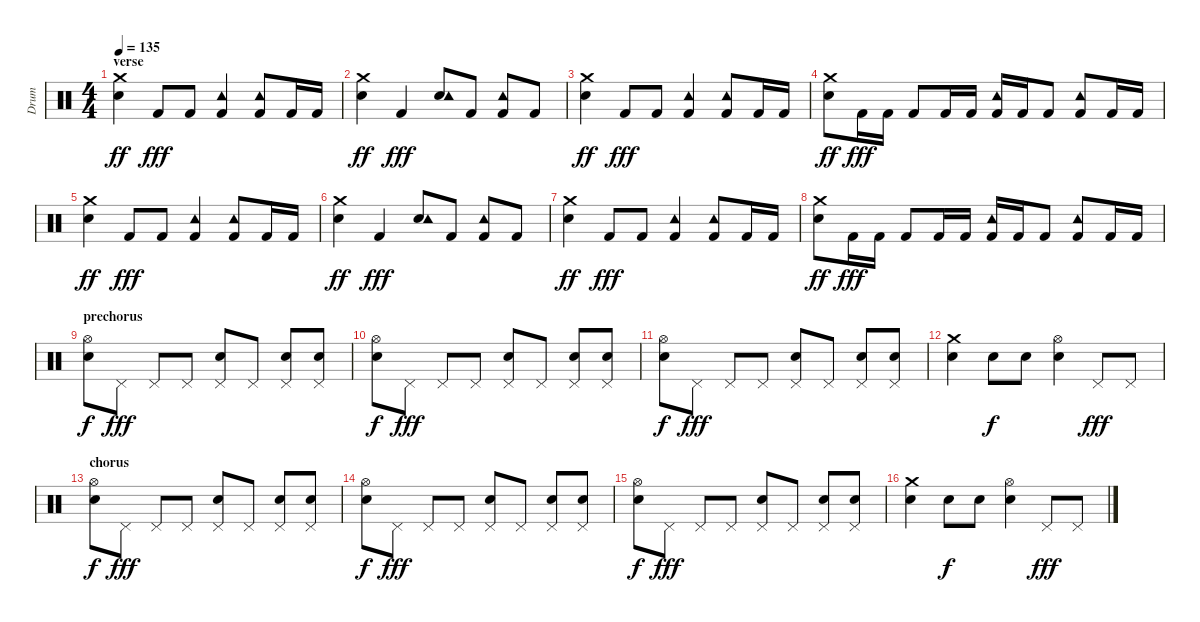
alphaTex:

\track ("Drum" "Drum") {instrument percussion}
\staff {score}
\articulation defaults
\ts (4 4)
\section ("" "verse")
\tempo 135
\clef neutral
\ks c
("Electric Snare (hit)" "Crash medium (hit)").4{dy ff} "Kick (hit) 2".8{dy fff} "Kick (hit) 2".8 ("Kick (hit) 2" "Tambourine (hit)").4 ("Kick (hit) 2" "Tambourine (hit)").8 "Kick (hit) 2".16 "Kick (hit) 2".16 |
("Electric Snare (hit)" "Crash medium (hit)").4{dy ff} "Kick (hit) 2".4{dy fff} ("Electric Snare (hit)" "Tambourine (hit)").8 "Kick (hit) 2".8 ("Kick (hit) 2" "Tambourine (hit)").8 "Kick (hit) 2".8 |
("Electric Snare (hit)" "Crash medium (hit)").4{dy ff} "Kick (hit) 2".8{dy fff} "Kick (hit) 2".8 ("Kick (hit) 2" "Tambourine (hit)").4 ("Kick (hit) 2" "Tambourine (hit)").8 "Kick (hit) 2".16 "Kick (hit) 2".16 |
("Electric Snare (hit)" "Crash medium (hit)").8{dy ff} "Kick (hit) 2".16{dy fff} "Kick (hit) 2".16 "Kick (hit) 2".8 "Kick (hit) 2".16 "Kick (hit) 2".16 ("Kick (hit) 2" "Tambourine (hit)").16 "Kick (hit) 2".16 "Kick (hit) 2".8 ("Kick (hit) 2" "Tambourine (hit)").8 "Kick (hit) 2".16 "Kick (hit) 2".16 |
("Electric Snare (hit)" "Crash medium (hit)").4{dy ff} "Kick (hit) 2".8{dy fff} "Kick (hit) 2".8 ("Kick (hit) 2" "Tambourine (hit)").4 ("Kick (hit) 2" "Tambourine (hit)").8 "Kick (hit) 2".16 "Kick (hit) 2".16 |
("Electric Snare (hit)" "Crash medium (hit)").4{dy ff} "Kick (hit) 2".4{dy fff} ("Electric Snare (hit)" "Tambourine (hit)").8 "Kick (hit) 2".8 ("Kick (hit) 2" "Tambourine (hit)").8 "Kick (hit) 2".8 |
("Electric Snare (hit)" "Crash medium (hit)").4{dy ff} "Kick (hit) 2".8{dy fff} "Kick (hit) 2".8 ("Kick (hit) 2" "Tambourine (hit)").4 ("Kick (hit) 2" "Tambourine (hit)").8 "Kick (hit) 2".16 "Kick (hit) 2".16 |
("Electric Snare (hit)" "Crash medium (hit)").8{dy ff} "Kick (hit) 2".16{dy fff} "Kick (hit) 2".16 "Kick (hit) 2".8 "Kick (hit) 2".16 "Kick (hit) 2".16 ("Kick (hit) 2" "Tambourine (hit)").16 "Kick (hit) 2".16 "Kick (hit) 2".8 ("Kick (hit) 2" "Tambourine (hit)").8 "Kick (hit) 2".16 "Kick (hit) 2".16 |
\section ("" "prechorus")
("Hi-Hat (open)" "Electric Snare (hit)").8{dy f} "Pedal Hi-Hat (hit)".8{dy fff} "Pedal Hi-Hat (hit)".8 "Pedal Hi-Hat (hit)".8 ("Pedal Hi-Hat (hit)" "Electric Snare (hit)").8 "Pedal Hi-Hat (hit)".8 ("Pedal Hi-Hat (hit)" "Electric Snare (hit)").8 ("Pedal Hi-Hat (hit)" "Electric Snare (hit)").8 |
("Hi-Hat (open)" "Electric Snare (hit)").8{dy f} "Pedal Hi-Hat (hit)".8{dy fff} "Pedal Hi-Hat (hit)".8 "Pedal Hi-Hat (hit)".8 ("Pedal Hi-Hat (hit)" "Electric Snare (hit)").8 "Pedal Hi-Hat (hit)".8 ("Pedal Hi-Hat (hit)" "Electric Snare (hit)").8 ("Pedal Hi-Hat (hit)" "Electric Snare (hit)").8 |
("Hi-Hat (open)" "Electric Snare (hit)").8{dy f} "Pedal Hi-Hat (hit)".8{dy fff} "Pedal Hi-Hat (hit)".8 "Pedal Hi-Hat (hit)".8 ("Pedal Hi-Hat (hit)" "Electric Snare (hit)").8 "Pedal Hi-Hat (hit)".8 ("Pedal Hi-Hat (hit)" "Electric Snare (hit)").8 ("Pedal Hi-Hat (hit)" "Electric Snare (hit)").8 |
("Crash medium (hit)" "Electric Snare (hit)").4 "Electric Snare (hit)".8{dy f} "Electric Snare (hit)".8 ("Hi-Hat (open)" "Electric Snare (hit)").4 "Pedal Hi-Hat (hit)".8{dy fff} "Pedal Hi-Hat (hit)".8 |
\section ("" "chorus")
("Hi-Hat (open)" "Electric Snare (hit)").8{dy f} "Pedal Hi-Hat (hit)".8{dy fff} "Pedal Hi-Hat (hit)".8 "Pedal Hi-Hat (hit)".8 ("Pedal Hi-Hat (hit)" "Electric Snare (hit)").8 "Pedal Hi-Hat (hit)".8 ("Pedal Hi-Hat (hit)" "Electric Snare (hit)").8 ("Pedal Hi-Hat (hit)" "Electric Snare (hit)").8 |
("Hi-Hat (open)" "Electric Snare (hit)").8{dy f} "Pedal Hi-Hat (hit)".8{dy fff} "Pedal Hi-Hat (hit)".8 "Pedal Hi-Hat (hit)".8 ("Pedal Hi-Hat (hit)" "Electric Snare (hit)").8 "Pedal Hi-Hat (hit)".8 ("Pedal Hi-Hat (hit)" "Electric Snare (hit)").8 ("Pedal Hi-Hat (hit)" "Electric Snare (hit)").8 |
("Hi-Hat (open)" "Electric Snare (hit)").8{dy f} "Pedal Hi-Hat (hit)".8{dy fff} "Pedal Hi-Hat (hit)".8 "Pedal Hi-Hat (hit)".8 ("Pedal Hi-Hat (hit)" "Electric Snare (hit)").8 "Pedal Hi-Hat (hit)".8 ("Pedal Hi-Hat (hit)" "Electric Snare (hit)").8 ("Pedal Hi-Hat (hit)" "Electric Snare (hit)").8 |
("Crash medium (hit)" "Electric Snare (hit)").4 "Electric Snare (hit)".8{dy f} "Electric Snare (hit)".8 ("Hi-Hat (open)" "Electric Snare (hit)").4 "Pedal Hi-Hat (hit)".8{dy fff} "Pedal Hi-Hat (hit)".8
